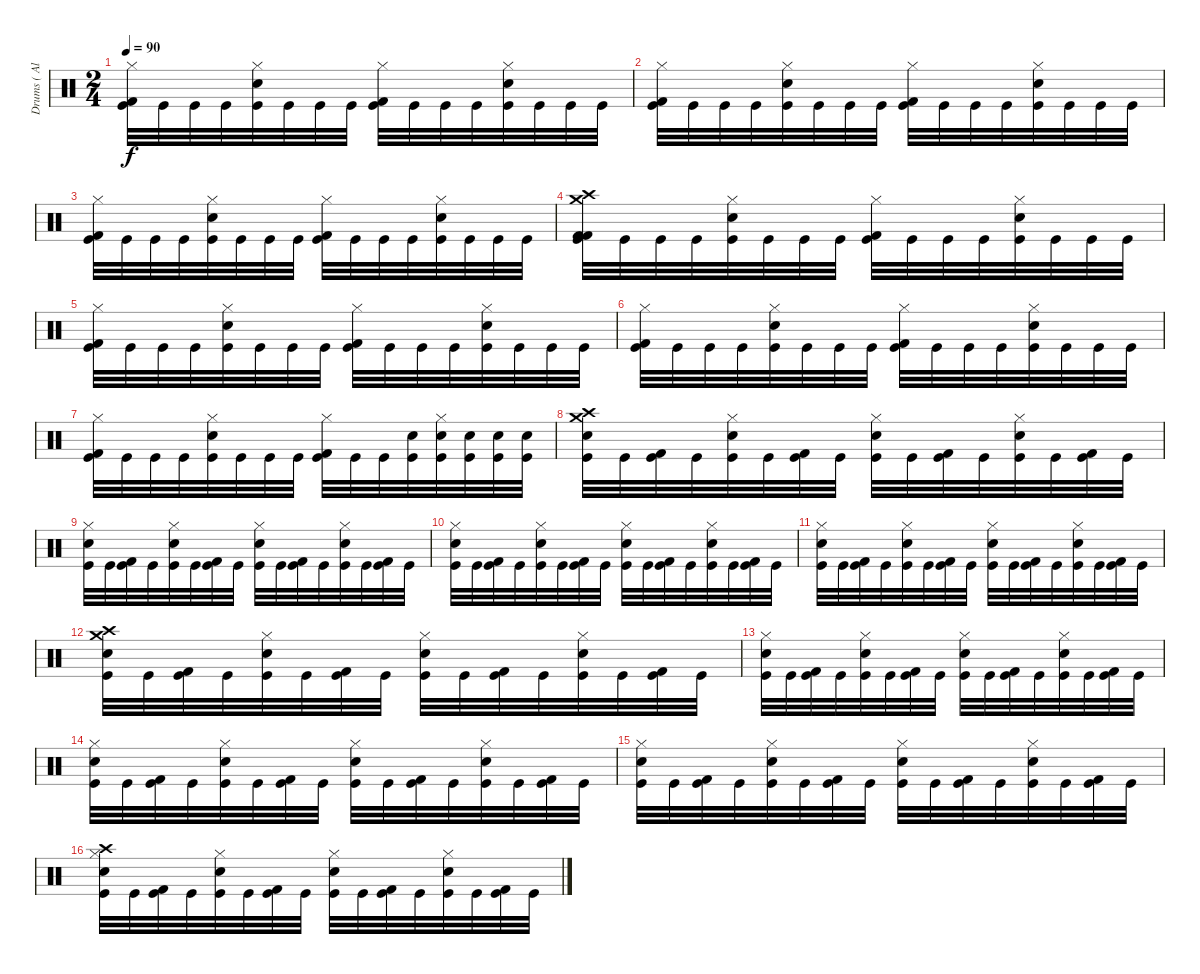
\track ("Drums ( Alex Holzwarth)" "Drums ( Al") {instrument percussion}
\staff {score}
\articulation defaults
\ts (2 4)
\tempo 90
\clef neutral
\ks c
("Hi-Hat (closed)" "Kick (hit) 2" "Kick (hit)").32{dy f} "Kick (hit)".32 "Kick (hit)".32 "Kick (hit)".32 ("Hi-Hat (closed)" "Snare (hit) 2" "Kick (hit)").32 "Kick (hit)".32 "Kick (hit)".32 "Kick (hit)".32 ("Hi-Hat (closed)" "Kick (hit) 2" "Kick (hit)").32 "Kick (hit)".32 "Kick (hit)".32 "Kick (hit)".32 ("Hi-Hat (closed)" "Snare (hit) 2" "Kick (hit)").32 "Kick (hit)".32 "Kick (hit)".32 "Kick (hit)".32 |
("Hi-Hat (closed)" "Kick (hit) 2" "Kick (hit)").32 "Kick (hit)".32 "Kick (hit)".32 "Kick (hit)".32 ("Hi-Hat (closed)" "Snare (hit) 2" "Kick (hit)").32 "Kick (hit)".32 "Kick (hit)".32 "Kick (hit)".32 ("Hi-Hat (closed)" "Kick (hit) 2" "Kick (hit)").32 "Kick (hit)".32 "Kick (hit)".32 "Kick (hit)".32 ("Hi-Hat (closed)" "Snare (hit) 2" "Kick (hit)").32 "Kick (hit)".32 "Kick (hit)".32 "Kick (hit)".32 |
("Hi-Hat (closed)" "Kick (hit) 2" "Kick (hit)").32 "Kick (hit)".32 "Kick (hit)".32 "Kick (hit)".32 ("Hi-Hat (closed)" "Snare (hit) 2" "Kick (hit)").32 "Kick (hit)".32 "Kick (hit)".32 "Kick (hit)".32 ("Hi-Hat (closed)" "Kick (hit) 2" "Kick (hit)").32 "Kick (hit)".32 "Kick (hit)".32 "Kick (hit)".32 ("Hi-Hat (closed)" "Snare (hit) 2" "Kick (hit)").32 "Kick (hit)".32 "Kick (hit)".32 "Kick (hit)".32 |
("Crash high (hit)" "Crash medium (hit)" "Kick (hit) 2" "Kick (hit) 2" "Kick (hit)").32 "Kick (hit)".32 "Kick (hit)".32 "Kick (hit)".32 ("Hi-Hat (closed)" "Snare (hit) 2" "Kick (hit)").32 "Kick (hit)".32 "Kick (hit)".32 "Kick (hit)".32 ("Hi-Hat (closed)" "Kick (hit) 2" "Kick (hit)").32 "Kick (hit)".32 "Kick (hit)".32 "Kick (hit)".32 ("Hi-Hat (closed)" "Snare (hit) 2" "Kick (hit)").32 "Kick (hit)".32 "Kick (hit)".32 "Kick (hit)".32 |
("Hi-Hat (closed)" "Kick (hit) 2" "Kick (hit)").32 "Kick (hit)".32 "Kick (hit)".32 "Kick (hit)".32 ("Hi-Hat (closed)" "Snare (hit) 2" "Kick (hit)").32 "Kick (hit)".32 "Kick (hit)".32 "Kick (hit)".32 ("Hi-Hat (closed)" "Kick (hit) 2" "Kick (hit)").32 "Kick (hit)".32 "Kick (hit)".32 "Kick (hit)".32 ("Hi-Hat (closed)" "Snare (hit) 2" "Kick (hit)").32 "Kick (hit)".32 "Kick (hit)".32 "Kick (hit)".32 |
("Hi-Hat (closed)" "Kick (hit) 2" "Kick (hit)").32 "Kick (hit)".32 "Kick (hit)".32 "Kick (hit)".32 ("Hi-Hat (closed)" "Snare (hit) 2" "Kick (hit)").32 "Kick (hit)".32 "Kick (hit)".32 "Kick (hit)".32 ("Hi-Hat (closed)" "Kick (hit) 2" "Kick (hit)").32 "Kick (hit)".32 "Kick (hit)".32 "Kick (hit)".32 ("Hi-Hat (closed)" "Snare (hit) 2" "Kick (hit)").32 "Kick (hit)".32 "Kick (hit)".32 "Kick (hit)".32 |
("Hi-Hat (closed)" "Kick (hit) 2" "Kick (hit)").32 "Kick (hit)".32 "Kick (hit)".32 "Kick (hit)".32 ("Hi-Hat (closed)" "Snare (hit) 2" "Kick (hit)").32 "Kick (hit)".32 "Kick (hit)".32 "Kick (hit)".32 ("Hi-Hat (closed)" "Kick (hit) 2" "Kick (hit)").32 "Kick (hit)".32 "Kick (hit)".32 ("Electric Snare (hit)" "Kick (hit)").32 ("Hi-Hat (closed)" "Electric Snare (hit)" "Kick (hit)").32 ("Electric Snare (hit)" "Kick (hit)").32 ("Electric Snare (hit)" "Kick (hit)").32 ("Electric Snare (hit)" "Kick (hit)").32 |
("Crash high (hit)" "Crash medium (hit)" "Electric Snare (hit)" "Kick (hit)").32 "Kick (hit)".32 ("Kick (hit) 2" "Kick (hit)").32 "Kick (hit)".32 ("Hi-Hat (closed)" "Electric Snare (hit)" "Kick (hit)").32 "Kick (hit)".32 ("Kick (hit) 2" "Kick (hit)").32 "Kick (hit)".32 ("Hi-Hat (closed)" "Electric Snare (hit)" "Kick (hit)").32 "Kick (hit)".32 ("Kick (hit) 2" "Kick (hit)").32 "Kick (hit)".32 ("Hi-Hat (closed)" "Electric Snare (hit)" "Kick (hit)").32 "Kick (hit)".32 ("Kick (hit) 2" "Kick (hit)").32 "Kick (hit)".32 |
("Hi-Hat (closed)" "Electric Snare (hit)" "Kick (hit)").32 "Kick (hit)".32 ("Kick (hit) 2" "Kick (hit)").32 "Kick (hit)".32 ("Hi-Hat (closed)" "Electric Snare (hit)" "Kick (hit)").32 "Kick (hit)".32 ("Kick (hit) 2" "Kick (hit)").32 "Kick (hit)".32 ("Hi-Hat (closed)" "Electric Snare (hit)" "Kick (hit)").32 "Kick (hit)".32 ("Kick (hit) 2" "Kick (hit)").32 "Kick (hit)".32 ("Hi-Hat (closed)" "Electric Snare (hit)" "Kick (hit)").32 "Kick (hit)".32 ("Kick (hit) 2" "Kick (hit)").32 "Kick (hit)".32 |
("Hi-Hat (closed)" "Electric Snare (hit)" "Kick (hit)").32 "Kick (hit)".32 ("Kick (hit) 2" "Kick (hit)").32 "Kick (hit)".32 ("Hi-Hat (closed)" "Electric Snare (hit)" "Kick (hit)").32 "Kick (hit)".32 ("Kick (hit) 2" "Kick (hit)").32 "Kick (hit)".32 ("Hi-Hat (closed)" "Electric Snare (hit)" "Kick (hit)").32 "Kick (hit)".32 ("Kick (hit) 2" "Kick (hit)").32 "Kick (hit)".32 ("Hi-Hat (closed)" "Electric Snare (hit)" "Kick (hit)").32 "Kick (hit)".32 ("Kick (hit) 2" "Kick (hit)").32 "Kick (hit)".32 |
("Hi-Hat (closed)" "Electric Snare (hit)" "Kick (hit)").32 "Kick (hit)".32 ("Kick (hit) 2" "Kick (hit)").32 "Kick (hit)".32 ("Hi-Hat (closed)" "Electric Snare (hit)" "Kick (hit)").32 "Kick (hit)".32 ("Kick (hit) 2" "Kick (hit)").32 "Kick (hit)".32 ("Hi-Hat (closed)" "Electric Snare (hit)" "Kick (hit)").32 "Kick (hit)".32 ("Kick (hit) 2" "Kick (hit)").32 "Kick (hit)".32 ("Hi-Hat (closed)" "Electric Snare (hit)" "Kick (hit)").32 "Kick (hit)".32 ("Kick (hit) 2" "Kick (hit)").32 "Kick (hit)".32 |
("Crash high (hit)" "Crash medium (hit)" "Electric Snare (hit)" "Kick (hit)").32 "Kick (hit)".32 ("Kick (hit) 2" "Kick (hit)").32 "Kick (hit)".32 ("Hi-Hat (closed)" "Electric Snare (hit)" "Kick (hit)").32 "Kick (hit)".32 ("Kick (hit) 2" "Kick (hit)").32 "Kick (hit)".32 ("Hi-Hat (closed)" "Electric Snare (hit)" "Kick (hit)").32 "Kick (hit)".32 ("Kick (hit) 2" "Kick (hit)").32 "Kick (hit)".32 ("Hi-Hat (closed)" "Electric Snare (hit)" "Kick (hit)").32 "Kick (hit)".32 ("Kick (hit) 2" "Kick (hit)").32 "Kick (hit)".32 |
("Hi-Hat (closed)" "Electric Snare (hit)" "Kick (hit)").32 "Kick (hit)".32 ("Kick (hit) 2" "Kick (hit)").32 "Kick (hit)".32 ("Hi-Hat (closed)" "Electric Snare (hit)" "Kick (hit)").32 "Kick (hit)".32 ("Kick (hit) 2" "Kick (hit)").32 "Kick (hit)".32 ("Hi-Hat (closed)" "Electric Snare (hit)" "Kick (hit)").32 "Kick (hit)".32 ("Kick (hit) 2" "Kick (hit)").32 "Kick (hit)".32 ("Hi-Hat (closed)" "Electric Snare (hit)" "Kick (hit)").32 "Kick (hit)".32 ("Kick (hit) 2" "Kick (hit)").32 "Kick (hit)".32 |
("Hi-Hat (closed)" "Electric Snare (hit)" "Kick (hit)").32 "Kick (hit)".32 ("Kick (hit) 2" "Kick (hit)").32 "Kick (hit)".32 ("Hi-Hat (closed)" "Electric Snare (hit)" "Kick (hit)").32 "Kick (hit)".32 ("Kick (hit) 2" "Kick (hit)").32 "Kick (hit)".32 ("Hi-Hat (closed)" "Electric Snare (hit)" "Kick (hit)").32 "Kick (hit)".32 ("Kick (hit) 2" "Kick (hit)").32 "Kick (hit)".32 ("Hi-Hat (closed)" "Electric Snare (hit)" "Kick (hit)").32 "Kick (hit)".32 ("Kick (hit) 2" "Kick (hit)").32 "Kick (hit)".32 |
("Hi-Hat (closed)" "Electric Snare (hit)" "Kick (hit)").32 "Kick (hit)".32 ("Kick (hit) 2" "Kick (hit)").32 "Kick (hit)".32 ("Hi-Hat (closed)" "Electric Snare (hit)" "Kick (hit)").32 "Kick (hit)".32 ("Kick (hit) 2" "Kick (hit)").32 "Kick (hit)".32 ("Hi-Hat (closed)" "Electric Snare (hit)" "Kick (hit)").32 "Kick (hit)".32 ("Kick (hit) 2" "Kick (hit)").32 "Kick (hit)".32 ("Hi-Hat (closed)" "Electric Snare (hit)" "Kick (hit)").32 "Kick (hit)".32 ("Kick (hit) 2" "Kick (hit)").32 "Kick (hit)".32 |
("Crash high (hit)" "Hi-Hat (closed)" "Electric Snare (hit)" "Kick (hit)").32 "Kick (hit)".32 ("Kick (hit) 2" "Kick (hit)").32 "Kick (hit)".32 ("Hi-Hat (closed)" "Electric Snare (hit)" "Kick (hit)").32 "Kick (hit)".32 ("Kick (hit) 2" "Kick (hit)").32 "Kick (hit)".32 ("Hi-Hat (closed)" "Electric Snare (hit)" "Kick (hit)").32 "Kick (hit)".32 ("Kick (hit) 2" "Kick (hit)").32 "Kick (hit)".32 ("Hi-Hat (closed)" "Electric Snare (hit)" "Kick (hit)").32 "Kick (hit)".32 ("Kick (hit) 2" "Kick (hit)").32 "Kick (hit)".32
